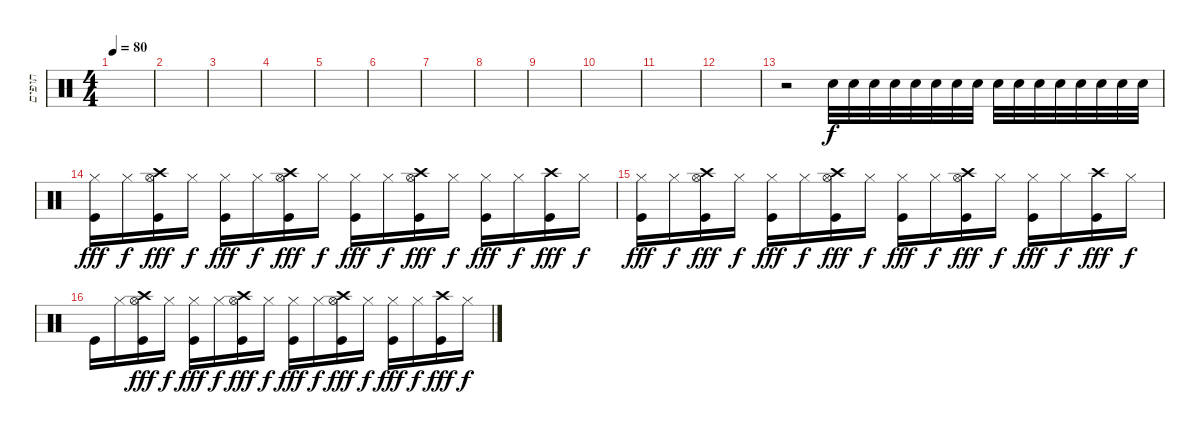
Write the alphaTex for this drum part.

\track ("תופים" "תופים") {instrument percussion}
\staff {score}
\articulation defaults
\ts (4 4)
\tempo 80
\clef neutral
\ks c
|
|
|
|
|
|
|
|
|
|
|
|
r.2 "Snare (hit) 2".32 "Snare (hit) 2".32 "Snare (hit) 2".32 "Snare (hit) 2".32 "Snare (hit) 2".32 "Snare (hit) 2".32 "Snare (hit) 2".32 "Snare (hit) 2".32 "Snare (hit) 2".32 "Snare (hit) 2".32 "Snare (hit) 2".32 "Snare (hit) 2".32 "Snare (hit) 2".32 "Snare (hit) 2".32 "Snare (hit) 2".32 "Snare (hit) 2".32 |
("Hi-Hat (closed)" "Kick (hit)").16{dy fff} "Hi-Hat (closed)".16{dy f} ("Crash high (hit)" "Kick (hit)" "Hi-Hat (open)").16{dy fff} "Hi-Hat (closed)".16{dy f} ("Hi-Hat (closed)" "Kick (hit)").16{dy fff} "Hi-Hat (closed)".16{dy f} ("Crash high (hit)" "Kick (hit)" "Hi-Hat (open)").16{dy fff} "Hi-Hat (closed)".16{dy f} ("Hi-Hat (closed)" "Kick (hit)").16{dy fff} "Hi-Hat (closed)".16{dy f} ("Crash high (hit)" "Kick (hit)" "Hi-Hat (open)").16{dy fff} "Hi-Hat (closed)".16{dy f} ("Hi-Hat (closed)" "Kick (hit)").16{dy fff} "Hi-Hat (closed)".16{dy f} ("Crash high (hit)" "Kick (hit)").16{dy fff} "Hi-Hat (closed)".16{dy f} |
("Hi-Hat (closed)" "Kick (hit)").16{dy fff} "Hi-Hat (closed)".16{dy f} ("Crash high (hit)" "Kick (hit)" "Hi-Hat (open)").16{dy fff} "Hi-Hat (closed)".16{dy f} ("Hi-Hat (closed)" "Kick (hit)").16{dy fff} "Hi-Hat (closed)".16{dy f} ("Crash high (hit)" "Kick (hit)" "Hi-Hat (open)").16{dy fff} "Hi-Hat (closed)".16{dy f} ("Hi-Hat (closed)" "Kick (hit)").16{dy fff} "Hi-Hat (closed)".16{dy f} ("Crash high (hit)" "Kick (hit)" "Hi-Hat (open)").16{dy fff} "Hi-Hat (closed)".16{dy f} ("Hi-Hat (closed)" "Kick (hit)").16{dy fff} "Hi-Hat (closed)".16{dy f} ("Crash high (hit)" "Kick (hit)").16{dy fff} "Hi-Hat (closed)".16{dy f} |
"Kick (hit)".16 "Hi-Hat (closed)".16 ("Crash high (hit)" "Kick (hit)" "Hi-Hat (open)").16{dy fff} "Hi-Hat (closed)".16{dy f} ("Hi-Hat (closed)" "Kick (hit)").16{dy fff} "Hi-Hat (closed)".16{dy f} ("Crash high (hit)" "Kick (hit)" "Hi-Hat (open)").16{dy fff} "Hi-Hat (closed)".16{dy f} ("Hi-Hat (closed)" "Kick (hit)").16{dy fff} "Hi-Hat (closed)".16{dy f} ("Crash high (hit)" "Kick (hit)" "Hi-Hat (open)").16{dy fff} "Hi-Hat (closed)".16{dy f} ("Hi-Hat (closed)" "Kick (hit)").16{dy fff} "Hi-Hat (closed)".16{dy f} ("Crash high (hit)" "Kick (hit)").16{dy fff} "Hi-Hat (closed)".16{dy f}
